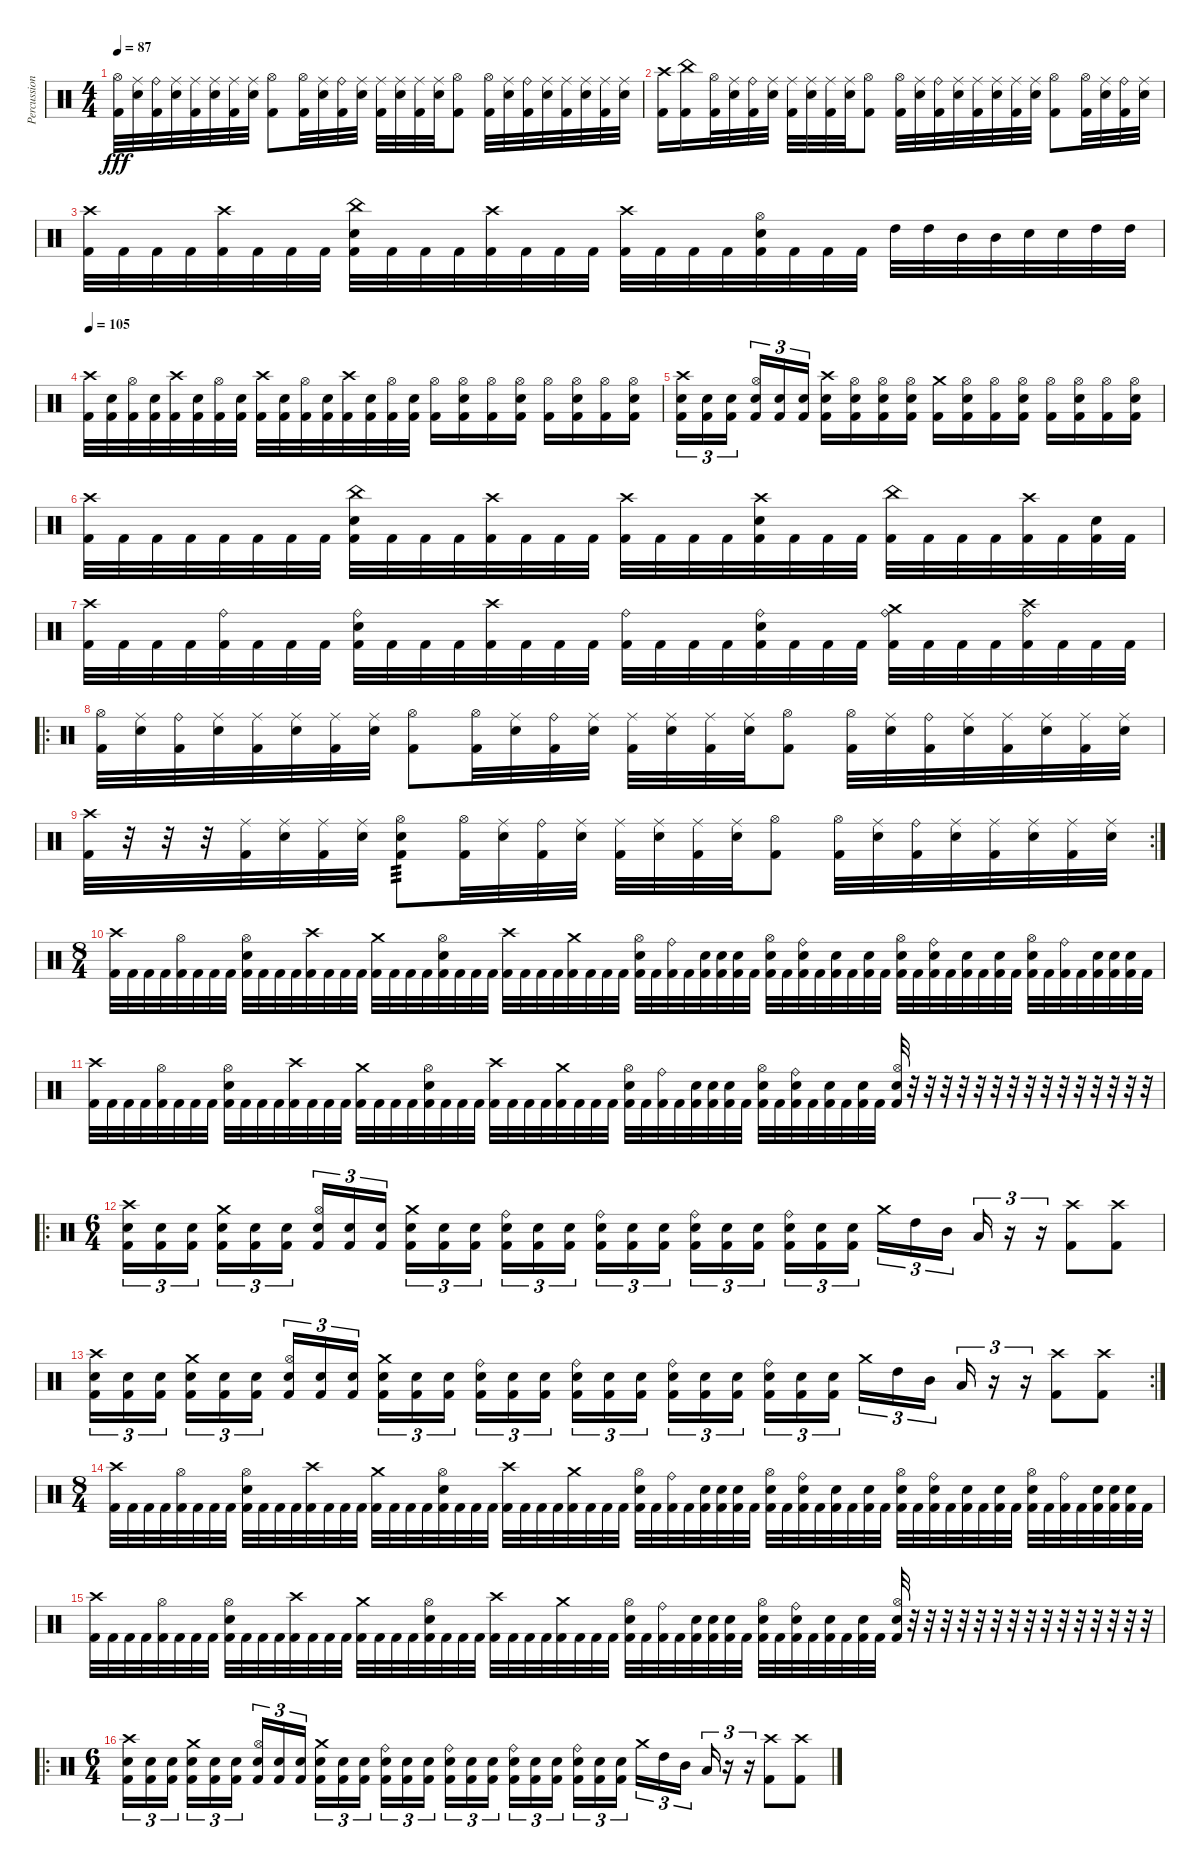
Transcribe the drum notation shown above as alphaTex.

\track ("Percussion" "Percussion") {mute instrument percussion}
\staff {score}
\articulation defaults
\ts (4 4)
\tempo 87
\clef neutral
\ks c
("Kick (hit) 2" "Hi-Hat (open)").32{dy fff} ("Electric Snare (hit)" "Ride (middle)").32 ("Kick (hit) 2" "Ride (bell)").32 ("Electric Snare (hit)" "Ride (middle)").32 ("Kick (hit) 2" "Ride (middle)").32 ("Electric Snare (hit)" "Ride (middle)").32 ("Kick (hit) 2" "Ride (middle)").32 ("Electric Snare (hit)" "Ride (middle)").32 ("Kick (hit) 2" "Hi-Hat (open)").8 ("Kick (hit) 2" "Hi-Hat (open)").32 ("Electric Snare (hit)" "Ride (middle)").32 ("Kick (hit) 2" "Ride (bell)").32 ("Electric Snare (hit)" "Ride (middle)").32 ("Kick (hit) 2" "Ride (middle)").32 ("Electric Snare (hit)" "Ride (middle)").32 ("Kick (hit) 2" "Ride (middle)").32 ("Electric Snare (hit)" "Ride (middle)").32 ("Kick (hit) 2" "Hi-Hat (open)").8 ("Kick (hit) 2" "Hi-Hat (open)").32 ("Electric Snare (hit)" "Ride (middle)").32 ("Kick (hit) 2" "Ride (bell)").32 ("Electric Snare (hit)" "Ride (middle)").32 ("Kick (hit) 2" "Ride (middle)").32 ("Electric Snare (hit)" "Ride (middle)").32 ("Kick (hit) 2" "Ride (middle)").32 ("Electric Snare (hit)" "Ride (middle)").32 |
("Kick (hit) 2" "Crash high (hit)").16 ("Kick (hit) 2" "China (hit)").16 ("Kick (hit) 2" "Hi-Hat (open)").32 ("Electric Snare (hit)" "Ride (middle)").32 ("Kick (hit) 2" "Ride (bell)").32 ("Electric Snare (hit)" "Ride (middle)").32 ("Kick (hit) 2" "Ride (middle)").32 ("Electric Snare (hit)" "Ride (middle)").32 ("Kick (hit) 2" "Ride (middle)").32 ("Electric Snare (hit)" "Ride (middle)").32 ("Kick (hit) 2" "Hi-Hat (open)").8 ("Kick (hit) 2" "Hi-Hat (open)").32 ("Electric Snare (hit)" "Ride (middle)").32 ("Kick (hit) 2" "Ride (bell)").32 ("Electric Snare (hit)" "Ride (middle)").32 ("Kick (hit) 2" "Ride (middle)").32 ("Electric Snare (hit)" "Ride (middle)").32 ("Kick (hit) 2" "Ride (middle)").32 ("Electric Snare (hit)" "Ride (middle)").32 ("Kick (hit) 2" "Hi-Hat (open)").8 ("Kick (hit) 2" "Hi-Hat (open)").32 ("Electric Snare (hit)" "Ride (middle)").32 ("Kick (hit) 2" "Ride (bell)").32 ("Electric Snare (hit)" "Ride (middle)").32 |
("Crash high (hit)" "Kick (hit) 2").32 "Kick (hit) 2".32 "Kick (hit) 2".32 "Kick (hit) 2".32 ("Crash high (hit)" "Kick (hit) 2").32 "Kick (hit) 2".32 "Kick (hit) 2".32 "Kick (hit) 2".32 ("Electric Snare (hit)" "China (hit)" "Kick (hit) 2").32 "Kick (hit) 2".32 "Kick (hit) 2".32 "Kick (hit) 2".32 ("Crash high (hit)" "Kick (hit) 2").32 "Kick (hit) 2".32 "Kick (hit) 2".32 "Kick (hit) 2".32 ("Crash high (hit)" "Kick (hit) 2").32 "Kick (hit) 2".32 "Kick (hit) 2".32 "Kick (hit) 2".32 ("Electric Snare (hit)" "Hi-Hat (open)" "Kick (hit) 2").32 "Kick (hit) 2".32 "Kick (hit) 2".32 "Kick (hit) 2".32 "High Tom (hit)".32 "High Tom (hit)".32 "Mid Tom (hit)".32 "Mid Tom (hit)".32 "Electric Snare (hit)".32 "Electric Snare (hit)".32 "High Tom (hit)".32 "High Tom (hit)".32 |
\tempo 105
("Crash high (hit)" "Kick (hit) 2").32 ("Electric Snare (hit)" "Kick (hit) 2").32 ("Hi-Hat (open)" "Kick (hit) 2").32 ("Electric Snare (hit)" "Kick (hit) 2").32 ("Crash high (hit)" "Kick (hit) 2").32 ("Electric Snare (hit)" "Kick (hit) 2").32 ("Hi-Hat (open)" "Kick (hit) 2").32 ("Electric Snare (hit)" "Kick (hit) 2").32 ("Crash high (hit)" "Kick (hit) 2").32 ("Electric Snare (hit)" "Kick (hit) 2").32 ("Hi-Hat (open)" "Kick (hit) 2").32 ("Electric Snare (hit)" "Kick (hit) 2").32 ("Crash high (hit)" "Kick (hit) 2").32 ("Electric Snare (hit)" "Kick (hit) 2").32 ("Hi-Hat (open)" "Kick (hit) 2").32 ("Electric Snare (hit)" "Kick (hit) 2").32 ("Hi-Hat (open)" "Kick (hit) 2").16 ("Hi-Hat (open)" "Electric Snare (hit)" "Kick (hit) 2").16 ("Hi-Hat (open)" "Kick (hit) 2").16 ("Hi-Hat (open)" "Electric Snare (hit)" "Kick (hit) 2").16 ("Hi-Hat (open)" "Kick (hit) 2").16 ("Hi-Hat (open)" "Electric Snare (hit)" "Kick (hit) 2").16 ("Hi-Hat (open)" "Kick (hit) 2").16 ("Hi-Hat (open)" "Electric Snare (hit)" "Kick (hit) 2").16 |
("Electric Snare (hit)" "Crash high (hit)" "Kick (hit) 2").16{tu (3 2)} ("Electric Snare (hit)" "Kick (hit) 2").16{tu (3 2)} ("Electric Snare (hit)" "Kick (hit) 2").16{tu (3 2) beam splitsecondary} ("Electric Snare (hit)" "Hi-Hat (open)" "Kick (hit) 2").16{tu (3 2)} ("Electric Snare (hit)" "Kick (hit) 2").16{tu (3 2)} ("Electric Snare (hit)" "Kick (hit) 2").16{tu (3 2)} ("Crash high (hit)" "Electric Snare (hit)" "Kick (hit) 2").16 ("Hi-Hat (open)" "Electric Snare (hit)" "Kick (hit) 2").16 ("Hi-Hat (open)" "Electric Snare (hit)" "Kick (hit) 2").16 ("Hi-Hat (open)" "Electric Snare (hit)" "Kick (hit) 2").16 ("Crash medium (hit)" "Kick (hit) 2").16 ("Hi-Hat (open)" "Electric Snare (hit)" "Kick (hit) 2").16 ("Hi-Hat (open)" "Kick (hit) 2").16 ("Hi-Hat (open)" "Electric Snare (hit)" "Kick (hit) 2").16 ("Hi-Hat (open)" "Kick (hit) 2").16 ("Hi-Hat (open)" "Electric Snare (hit)" "Kick (hit) 2").16 ("Hi-Hat (open)" "Kick (hit) 2").16 ("Hi-Hat (open)" "Electric Snare (hit)" "Kick (hit) 2").16 |
("Crash high (hit)" "Kick (hit) 2").32 "Kick (hit) 2".32 "Kick (hit) 2".32 "Kick (hit) 2".32 "Kick (hit) 2".32 "Kick (hit) 2".32 "Kick (hit) 2".32 "Kick (hit) 2".32 ("Electric Snare (hit)" "China (hit)" "Kick (hit) 2").32 "Kick (hit) 2".32 "Kick (hit) 2".32 "Kick (hit) 2".32 ("Crash high (hit)" "Kick (hit) 2").32 "Kick (hit) 2".32 "Kick (hit) 2".32 "Kick (hit) 2".32 ("Crash high (hit)" "Kick (hit) 2").32 "Kick (hit) 2".32 "Kick (hit) 2".32 "Kick (hit) 2".32 ("Electric Snare (hit)" "Crash high (hit)" "Kick (hit) 2").32 "Kick (hit) 2".32 "Kick (hit) 2".32 "Kick (hit) 2".32 ("China (hit)" "Kick (hit) 2").32 "Kick (hit) 2".32 "Kick (hit) 2".32 "Kick (hit) 2".32 ("Crash high (hit)" "Kick (hit) 2").32 "Kick (hit) 2".32 ("Electric Snare (hit)" "Kick (hit) 2").32 "Kick (hit) 2".32 |
("Crash high (hit)" "Kick (hit) 2").32 "Kick (hit) 2".32 "Kick (hit) 2".32 "Kick (hit) 2".32 ("Ride (bell)" "Kick (hit) 2").32 "Kick (hit) 2".32 "Kick (hit) 2".32 "Kick (hit) 2".32 ("Electric Snare (hit)" "Ride (bell)" "Kick (hit) 2").32 "Kick (hit) 2".32 "Kick (hit) 2".32 "Kick (hit) 2".32 ("Crash high (hit)" "Kick (hit) 2").32 "Kick (hit) 2".32 "Kick (hit) 2".32 "Kick (hit) 2".32 ("Ride (bell)" "Kick (hit) 2").32 "Kick (hit) 2".32 "Kick (hit) 2".32 "Kick (hit) 2".32 ("Electric Snare (hit)" "Ride (bell)" "Kick (hit) 2").32 "Kick (hit) 2".32 "Kick (hit) 2".32 "Kick (hit) 2".32 ("Crash medium (hit)" "Ride (bell)" "Kick (hit) 2").32 "Kick (hit) 2".32 "Kick (hit) 2".32 "Kick (hit) 2".32 ("Crash high (hit)" "Ride (bell)" "Kick (hit) 2").32 "Kick (hit) 2".32 "Kick (hit) 2".32 "Kick (hit) 2".32 |
\ro
("Kick (hit) 2" "Hi-Hat (open)").32 ("Electric Snare (hit)" "Ride (middle)").32 ("Kick (hit) 2" "Ride (bell)").32 ("Electric Snare (hit)" "Ride (middle)").32 ("Kick (hit) 2" "Ride (middle)").32 ("Electric Snare (hit)" "Ride (middle)").32 ("Kick (hit) 2" "Ride (middle)").32 ("Electric Snare (hit)" "Ride (middle)").32 ("Kick (hit) 2" "Hi-Hat (open)").8 ("Kick (hit) 2" "Hi-Hat (open)").32 ("Electric Snare (hit)" "Ride (middle)").32 ("Kick (hit) 2" "Ride (bell)").32 ("Electric Snare (hit)" "Ride (middle)").32 ("Kick (hit) 2" "Ride (middle)").32 ("Electric Snare (hit)" "Ride (middle)").32 ("Kick (hit) 2" "Ride (middle)").32 ("Electric Snare (hit)" "Ride (middle)").32 ("Kick (hit) 2" "Hi-Hat (open)").8 ("Kick (hit) 2" "Hi-Hat (open)").32 ("Electric Snare (hit)" "Ride (middle)").32 ("Kick (hit) 2" "Ride (bell)").32 ("Electric Snare (hit)" "Ride (middle)").32 ("Kick (hit) 2" "Ride (middle)").32 ("Electric Snare (hit)" "Ride (middle)").32 ("Kick (hit) 2" "Ride (middle)").32 ("Electric Snare (hit)" "Ride (middle)").32 |
\rc 2
("Kick (hit) 2" "Crash high (hit)").32 r.32 r.32 r.32 ("Kick (hit) 2" "Ride (middle)").32 ("Electric Snare (hit)" "Ride (middle)").32 ("Kick (hit) 2" "Ride (middle)").32 ("Electric Snare (hit)" "Ride (middle)").32 ("Kick (hit) 2" "Electric Snare (hit)" "Hi-Hat (open)").8{tp 3} ("Kick (hit) 2" "Hi-Hat (open)").32 ("Electric Snare (hit)" "Ride (middle)").32 ("Kick (hit) 2" "Ride (bell)").32 ("Electric Snare (hit)" "Ride (middle)").32 ("Kick (hit) 2" "Ride (middle)").32 ("Electric Snare (hit)" "Ride (middle)").32 ("Kick (hit) 2" "Ride (middle)").32 ("Electric Snare (hit)" "Ride (middle)").32 ("Kick (hit) 2" "Hi-Hat (open)").8 ("Kick (hit) 2" "Hi-Hat (open)").32 ("Electric Snare (hit)" "Ride (middle)").32 ("Kick (hit) 2" "Ride (bell)").32 ("Electric Snare (hit)" "Ride (middle)").32 ("Kick (hit) 2" "Ride (middle)").32 ("Electric Snare (hit)" "Ride (middle)").32 ("Kick (hit) 2" "Ride (middle)").32 ("Electric Snare (hit)" "Ride (middle)").32 |
\ts (8 4)
("Crash high (hit)" "Kick (hit) 2").32 "Kick (hit) 2".32 "Kick (hit) 2".32 "Kick (hit) 2".32 ("Hi-Hat (open)" "Kick (hit) 2").32 "Kick (hit) 2".32 "Kick (hit) 2".32 "Kick (hit) 2".32 ("Electric Snare (hit)" "Hi-Hat (open)" "Kick (hit) 2").32 "Kick (hit) 2".32 "Kick (hit) 2".32 "Kick (hit) 2".32 ("Crash high (hit)" "Kick (hit) 2").32 "Kick (hit) 2".32 "Kick (hit) 2".32 "Kick (hit) 2".32 ("Crash medium (hit)" "Kick (hit) 2").32 "Kick (hit) 2".32 "Kick (hit) 2".32 "Kick (hit) 2".32 ("Electric Snare (hit)" "Hi-Hat (open)" "Kick (hit) 2").32 "Kick (hit) 2".32 "Kick (hit) 2".32 "Kick (hit) 2".32 ("Crash high (hit)" "Kick (hit) 2").32 "Kick (hit) 2".32 "Kick (hit) 2".32 "Kick (hit) 2".32 ("Crash medium (hit)" "Kick (hit) 2").32 "Kick (hit) 2".32 "Kick (hit) 2".32 "Kick (hit) 2".32 ("Electric Snare (hit)" "Hi-Hat (open)" "Kick (hit) 2").32 "Kick (hit) 2".32 ("Ride (bell)" "Kick (hit) 2").32 "Kick (hit) 2".32 ("Electric Snare (hit)" "Kick (hit) 2").32 ("Electric Snare (hit)" "Kick (hit) 2").32 ("Electric Snare (hit)" "Kick (hit) 2").32 "Kick (hit) 2".32 ("Electric Snare (hit)" "Hi-Hat (open)" "Kick (hit) 2").32 "Kick (hit) 2".32 ("Ride (bell)" "Electric Snare (hit)" "Kick (hit) 2").32 "Kick (hit) 2".32 ("Electric Snare (hit)" "Kick (hit) 2").32 "Kick (hit) 2".32 ("Electric Snare (hit)" "Kick (hit) 2").32 "Kick (hit) 2".32 ("Electric Snare (hit)" "Hi-Hat (open)" "Kick (hit) 2").32 "Kick (hit) 2".32 ("Ride (bell)" "Electric Snare (hit)" "Kick (hit) 2").32 "Kick (hit) 2".32 ("Electric Snare (hit)" "Kick (hit) 2").32 "Kick (hit) 2".32 ("Electric Snare (hit)" "Kick (hit) 2").32 "Kick (hit) 2".32 ("Electric Snare (hit)" "Hi-Hat (open)" "Kick (hit) 2").32 "Kick (hit) 2".32 ("Ride (bell)" "Kick (hit) 2").32 "Kick (hit) 2".32 ("Electric Snare (hit)" "Kick (hit) 2").32 ("Electric Snare (hit)" "Kick (hit) 2").32 ("Electric Snare (hit)" "Kick (hit) 2").32 "Kick (hit) 2".32 |
("Crash high (hit)" "Kick (hit) 2").32 "Kick (hit) 2".32 "Kick (hit) 2".32 "Kick (hit) 2".32 ("Hi-Hat (open)" "Kick (hit) 2").32 "Kick (hit) 2".32 "Kick (hit) 2".32 "Kick (hit) 2".32 ("Electric Snare (hit)" "Hi-Hat (open)" "Kick (hit) 2").32 "Kick (hit) 2".32 "Kick (hit) 2".32 "Kick (hit) 2".32 ("Crash high (hit)" "Kick (hit) 2").32 "Kick (hit) 2".32 "Kick (hit) 2".32 "Kick (hit) 2".32 ("Crash medium (hit)" "Kick (hit) 2").32 "Kick (hit) 2".32 "Kick (hit) 2".32 "Kick (hit) 2".32 ("Electric Snare (hit)" "Hi-Hat (open)" "Kick (hit) 2").32 "Kick (hit) 2".32 "Kick (hit) 2".32 "Kick (hit) 2".32 ("Crash high (hit)" "Kick (hit) 2").32 "Kick (hit) 2".32 "Kick (hit) 2".32 "Kick (hit) 2".32 ("Crash medium (hit)" "Kick (hit) 2").32 "Kick (hit) 2".32 "Kick (hit) 2".32 "Kick (hit) 2".32 ("Electric Snare (hit)" "Hi-Hat (open)" "Kick (hit) 2").32 "Kick (hit) 2".32 ("Ride (bell)" "Kick (hit) 2").32 "Kick (hit) 2".32 ("Electric Snare (hit)" "Kick (hit) 2").32 ("Electric Snare (hit)" "Kick (hit) 2").32 ("Electric Snare (hit)" "Kick (hit) 2").32 "Kick (hit) 2".32 ("Electric Snare (hit)" "Hi-Hat (open)" "Kick (hit) 2").32 "Kick (hit) 2".32 ("Ride (bell)" "Electric Snare (hit)" "Kick (hit) 2").32 "Kick (hit) 2".32 ("Electric Snare (hit)" "Kick (hit) 2").32 "Kick (hit) 2".32 ("Electric Snare (hit)" "Kick (hit) 2").32 "Kick (hit) 2".32 ("Electric Snare (hit)" "Hi-Hat (open)" "Kick (hit) 2").32 r.32 r.32 r.32 r.32 r.32 r.32 r.32 r.32 r.32 r.32 r.32 r.32 r.32 r.32 r.32 |
\ro
\ts (6 4)
("Electric Snare (hit)" "Crash high (hit)" "Kick (hit) 2").16{tu (3 2)} ("Electric Snare (hit)" "Kick (hit) 2").16{tu (3 2)} ("Electric Snare (hit)" "Kick (hit) 2").16{tu (3 2) beam splitsecondary} ("Electric Snare (hit)" "Crash medium (hit)" "Kick (hit) 2").16{tu (3 2)} ("Electric Snare (hit)" "Kick (hit) 2").16{tu (3 2)} ("Electric Snare (hit)" "Kick (hit) 2").16{tu (3 2) beam splitsecondary} ("Electric Snare (hit)" "Hi-Hat (open)" "Kick (hit) 2").16{tu (3 2)} ("Electric Snare (hit)" "Kick (hit) 2").16{tu (3 2)} ("Electric Snare (hit)" "Kick (hit) 2").16{tu (3 2) beam splitsecondary} ("Electric Snare (hit)" "Crash medium (hit)" "Kick (hit) 2").16{tu (3 2)} ("Electric Snare (hit)" "Kick (hit) 2").16{tu (3 2)} ("Electric Snare (hit)" "Kick (hit) 2").16{tu (3 2) beam splitsecondary} ("Electric Snare (hit)" "Ride (bell)" "Kick (hit) 2").16{tu (3 2)} ("Electric Snare (hit)" "Kick (hit) 2").16{tu (3 2)} ("Electric Snare (hit)" "Kick (hit) 2").16{tu (3 2) beam splitsecondary} ("Electric Snare (hit)" "Ride (bell)" "Kick (hit) 2").16{tu (3 2)} ("Electric Snare (hit)" "Kick (hit) 2").16{tu (3 2)} ("Electric Snare (hit)" "Kick (hit) 2").16{tu (3 2)} ("Electric Snare (hit)" "Ride (bell)" "Kick (hit) 2").16{tu (3 2)} ("Electric Snare (hit)" "Kick (hit) 2").16{tu (3 2)} ("Electric Snare (hit)" "Kick (hit) 2").16{tu (3 2) beam splitsecondary} ("Electric Snare (hit)" "Ride (bell)" "Kick (hit) 2").16{tu (3 2)} ("Electric Snare (hit)" "Kick (hit) 2").16{tu (3 2)} ("Electric Snare (hit)" "Kick (hit) 2").16{tu (3 2) beam splitsecondary} "Crash medium (hit)".16{tu (3 2)} "High Tom (hit)".16{tu (3 2)} "Mid Tom (hit)".16{tu (3 2) beam splitsecondary} "Low Tom (hit)".16{tu (3 2)} r.16{tu (3 2)} r.16{tu (3 2)} ("Kick (hit) 2" "Crash high (hit)").8 ("Kick (hit) 2" "Crash high (hit)").8 |
\rc 2
("Electric Snare (hit)" "Crash high (hit)" "Kick (hit) 2").16{tu (3 2)} ("Electric Snare (hit)" "Kick (hit) 2").16{tu (3 2)} ("Electric Snare (hit)" "Kick (hit) 2").16{tu (3 2) beam splitsecondary} ("Electric Snare (hit)" "Crash medium (hit)" "Kick (hit) 2").16{tu (3 2)} ("Electric Snare (hit)" "Kick (hit) 2").16{tu (3 2)} ("Electric Snare (hit)" "Kick (hit) 2").16{tu (3 2) beam splitsecondary} ("Electric Snare (hit)" "Hi-Hat (open)" "Kick (hit) 2").16{tu (3 2)} ("Electric Snare (hit)" "Kick (hit) 2").16{tu (3 2)} ("Electric Snare (hit)" "Kick (hit) 2").16{tu (3 2) beam splitsecondary} ("Electric Snare (hit)" "Crash medium (hit)" "Kick (hit) 2").16{tu (3 2)} ("Electric Snare (hit)" "Kick (hit) 2").16{tu (3 2)} ("Electric Snare (hit)" "Kick (hit) 2").16{tu (3 2) beam splitsecondary} ("Electric Snare (hit)" "Ride (bell)" "Kick (hit) 2").16{tu (3 2)} ("Electric Snare (hit)" "Kick (hit) 2").16{tu (3 2)} ("Electric Snare (hit)" "Kick (hit) 2").16{tu (3 2) beam splitsecondary} ("Electric Snare (hit)" "Ride (bell)" "Kick (hit) 2").16{tu (3 2)} ("Electric Snare (hit)" "Kick (hit) 2").16{tu (3 2)} ("Electric Snare (hit)" "Kick (hit) 2").16{tu (3 2)} ("Electric Snare (hit)" "Ride (bell)" "Kick (hit) 2").16{tu (3 2)} ("Electric Snare (hit)" "Kick (hit) 2").16{tu (3 2)} ("Electric Snare (hit)" "Kick (hit) 2").16{tu (3 2) beam splitsecondary} ("Electric Snare (hit)" "Ride (bell)" "Kick (hit) 2").16{tu (3 2)} ("Electric Snare (hit)" "Kick (hit) 2").16{tu (3 2)} ("Electric Snare (hit)" "Kick (hit) 2").16{tu (3 2) beam splitsecondary} "Crash medium (hit)".16{tu (3 2)} "High Tom (hit)".16{tu (3 2)} "Mid Tom (hit)".16{tu (3 2) beam splitsecondary} "Low Tom (hit)".16{tu (3 2)} r.16{tu (3 2)} r.16{tu (3 2)} ("Kick (hit) 2" "Crash high (hit)").8 ("Kick (hit) 2" "Crash high (hit)").8 |
\ts (8 4)
("Crash high (hit)" "Kick (hit) 2").32 "Kick (hit) 2".32 "Kick (hit) 2".32 "Kick (hit) 2".32 ("Hi-Hat (open)" "Kick (hit) 2").32 "Kick (hit) 2".32 "Kick (hit) 2".32 "Kick (hit) 2".32 ("Electric Snare (hit)" "Hi-Hat (open)" "Kick (hit) 2").32 "Kick (hit) 2".32 "Kick (hit) 2".32 "Kick (hit) 2".32 ("Crash high (hit)" "Kick (hit) 2").32 "Kick (hit) 2".32 "Kick (hit) 2".32 "Kick (hit) 2".32 ("Crash medium (hit)" "Kick (hit) 2").32 "Kick (hit) 2".32 "Kick (hit) 2".32 "Kick (hit) 2".32 ("Electric Snare (hit)" "Hi-Hat (open)" "Kick (hit) 2").32 "Kick (hit) 2".32 "Kick (hit) 2".32 "Kick (hit) 2".32 ("Crash high (hit)" "Kick (hit) 2").32 "Kick (hit) 2".32 "Kick (hit) 2".32 "Kick (hit) 2".32 ("Crash medium (hit)" "Kick (hit) 2").32 "Kick (hit) 2".32 "Kick (hit) 2".32 "Kick (hit) 2".32 ("Electric Snare (hit)" "Hi-Hat (open)" "Kick (hit) 2").32 "Kick (hit) 2".32 ("Ride (bell)" "Kick (hit) 2").32 "Kick (hit) 2".32 ("Electric Snare (hit)" "Kick (hit) 2").32 ("Electric Snare (hit)" "Kick (hit) 2").32 ("Electric Snare (hit)" "Kick (hit) 2").32 "Kick (hit) 2".32 ("Electric Snare (hit)" "Hi-Hat (open)" "Kick (hit) 2").32 "Kick (hit) 2".32 ("Ride (bell)" "Electric Snare (hit)" "Kick (hit) 2").32 "Kick (hit) 2".32 ("Electric Snare (hit)" "Kick (hit) 2").32 "Kick (hit) 2".32 ("Electric Snare (hit)" "Kick (hit) 2").32 "Kick (hit) 2".32 ("Electric Snare (hit)" "Hi-Hat (open)" "Kick (hit) 2").32 "Kick (hit) 2".32 ("Ride (bell)" "Electric Snare (hit)" "Kick (hit) 2").32 "Kick (hit) 2".32 ("Electric Snare (hit)" "Kick (hit) 2").32 "Kick (hit) 2".32 ("Electric Snare (hit)" "Kick (hit) 2").32 "Kick (hit) 2".32 ("Electric Snare (hit)" "Hi-Hat (open)" "Kick (hit) 2").32 "Kick (hit) 2".32 ("Ride (bell)" "Kick (hit) 2").32 "Kick (hit) 2".32 ("Electric Snare (hit)" "Kick (hit) 2").32 ("Electric Snare (hit)" "Kick (hit) 2").32 ("Electric Snare (hit)" "Kick (hit) 2").32 "Kick (hit) 2".32 |
("Crash high (hit)" "Kick (hit) 2").32 "Kick (hit) 2".32 "Kick (hit) 2".32 "Kick (hit) 2".32 ("Hi-Hat (open)" "Kick (hit) 2").32 "Kick (hit) 2".32 "Kick (hit) 2".32 "Kick (hit) 2".32 ("Electric Snare (hit)" "Hi-Hat (open)" "Kick (hit) 2").32 "Kick (hit) 2".32 "Kick (hit) 2".32 "Kick (hit) 2".32 ("Crash high (hit)" "Kick (hit) 2").32 "Kick (hit) 2".32 "Kick (hit) 2".32 "Kick (hit) 2".32 ("Crash medium (hit)" "Kick (hit) 2").32 "Kick (hit) 2".32 "Kick (hit) 2".32 "Kick (hit) 2".32 ("Electric Snare (hit)" "Hi-Hat (open)" "Kick (hit) 2").32 "Kick (hit) 2".32 "Kick (hit) 2".32 "Kick (hit) 2".32 ("Crash high (hit)" "Kick (hit) 2").32 "Kick (hit) 2".32 "Kick (hit) 2".32 "Kick (hit) 2".32 ("Crash medium (hit)" "Kick (hit) 2").32 "Kick (hit) 2".32 "Kick (hit) 2".32 "Kick (hit) 2".32 ("Electric Snare (hit)" "Hi-Hat (open)" "Kick (hit) 2").32 "Kick (hit) 2".32 ("Ride (bell)" "Kick (hit) 2").32 "Kick (hit) 2".32 ("Electric Snare (hit)" "Kick (hit) 2").32 ("Electric Snare (hit)" "Kick (hit) 2").32 ("Electric Snare (hit)" "Kick (hit) 2").32 "Kick (hit) 2".32 ("Electric Snare (hit)" "Hi-Hat (open)" "Kick (hit) 2").32 "Kick (hit) 2".32 ("Ride (bell)" "Electric Snare (hit)" "Kick (hit) 2").32 "Kick (hit) 2".32 ("Electric Snare (hit)" "Kick (hit) 2").32 "Kick (hit) 2".32 ("Electric Snare (hit)" "Kick (hit) 2").32 "Kick (hit) 2".32 ("Electric Snare (hit)" "Hi-Hat (open)" "Kick (hit) 2").32 r.32 r.32 r.32 r.32 r.32 r.32 r.32 r.32 r.32 r.32 r.32 r.32 r.32 r.32 r.32 |
\ro
\ts (6 4)
("Electric Snare (hit)" "Crash high (hit)" "Kick (hit) 2").16{tu (3 2)} ("Electric Snare (hit)" "Kick (hit) 2").16{tu (3 2)} ("Electric Snare (hit)" "Kick (hit) 2").16{tu (3 2) beam splitsecondary} ("Electric Snare (hit)" "Crash medium (hit)" "Kick (hit) 2").16{tu (3 2)} ("Electric Snare (hit)" "Kick (hit) 2").16{tu (3 2)} ("Electric Snare (hit)" "Kick (hit) 2").16{tu (3 2) beam splitsecondary} ("Electric Snare (hit)" "Hi-Hat (open)" "Kick (hit) 2").16{tu (3 2)} ("Electric Snare (hit)" "Kick (hit) 2").16{tu (3 2)} ("Electric Snare (hit)" "Kick (hit) 2").16{tu (3 2) beam splitsecondary} ("Electric Snare (hit)" "Crash medium (hit)" "Kick (hit) 2").16{tu (3 2)} ("Electric Snare (hit)" "Kick (hit) 2").16{tu (3 2)} ("Electric Snare (hit)" "Kick (hit) 2").16{tu (3 2) beam splitsecondary} ("Electric Snare (hit)" "Ride (bell)" "Kick (hit) 2").16{tu (3 2)} ("Electric Snare (hit)" "Kick (hit) 2").16{tu (3 2)} ("Electric Snare (hit)" "Kick (hit) 2").16{tu (3 2) beam splitsecondary} ("Electric Snare (hit)" "Ride (bell)" "Kick (hit) 2").16{tu (3 2)} ("Electric Snare (hit)" "Kick (hit) 2").16{tu (3 2)} ("Electric Snare (hit)" "Kick (hit) 2").16{tu (3 2)} ("Electric Snare (hit)" "Ride (bell)" "Kick (hit) 2").16{tu (3 2)} ("Electric Snare (hit)" "Kick (hit) 2").16{tu (3 2)} ("Electric Snare (hit)" "Kick (hit) 2").16{tu (3 2) beam splitsecondary} ("Electric Snare (hit)" "Ride (bell)" "Kick (hit) 2").16{tu (3 2)} ("Electric Snare (hit)" "Kick (hit) 2").16{tu (3 2)} ("Electric Snare (hit)" "Kick (hit) 2").16{tu (3 2) beam splitsecondary} "Crash medium (hit)".16{tu (3 2)} "High Tom (hit)".16{tu (3 2)} "Mid Tom (hit)".16{tu (3 2) beam splitsecondary} "Low Tom (hit)".16{tu (3 2)} r.16{tu (3 2)} r.16{tu (3 2)} ("Kick (hit) 2" "Crash high (hit)").8 ("Kick (hit) 2" "Crash high (hit)").8
